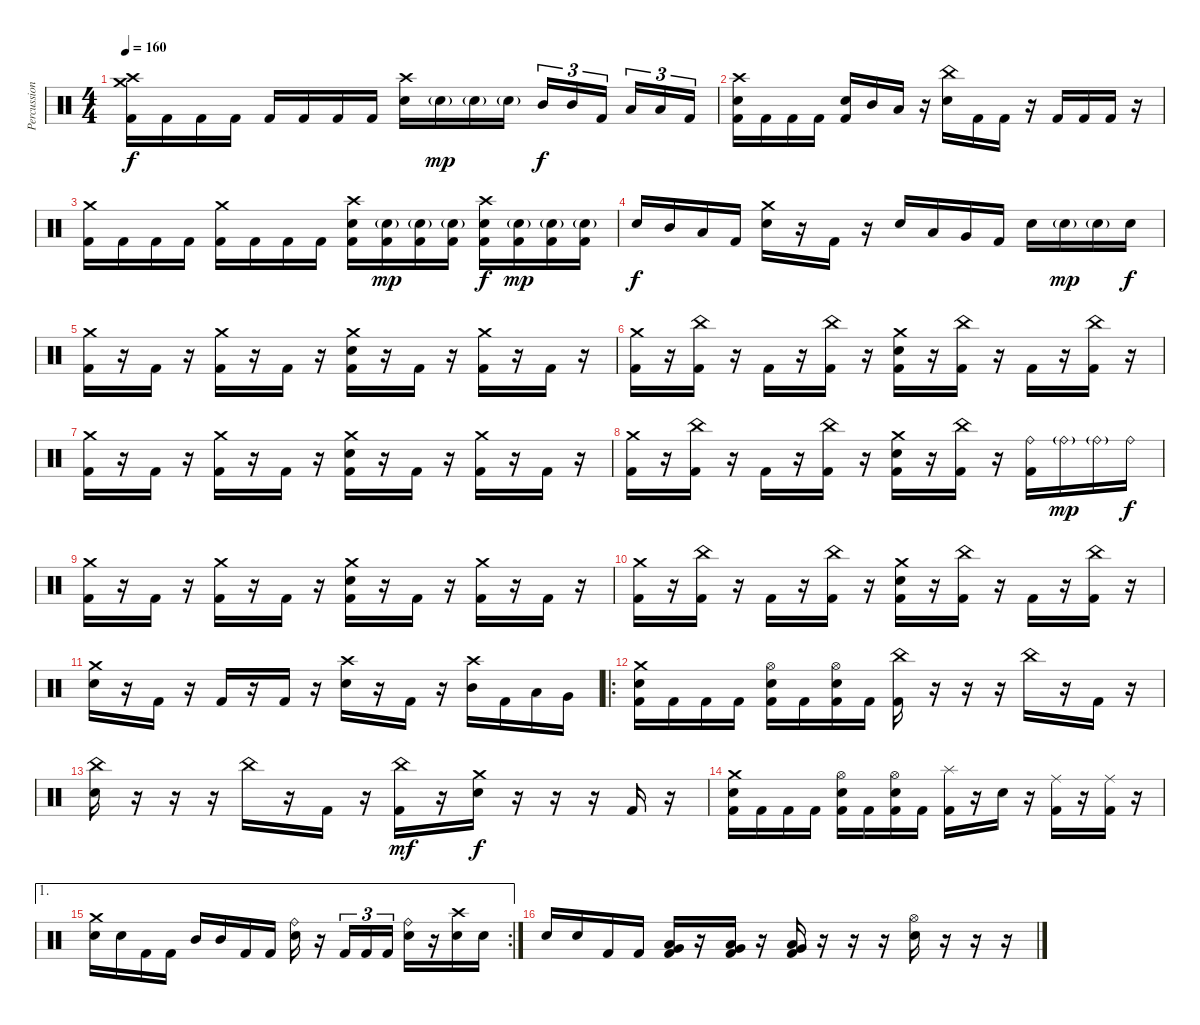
\track ("Percussion" "Percussion") {instrument percussion}
\staff {score}
\articulation defaults
\ts (4 4)
\tempo 160
\clef neutral
\ks c
("Crash high (hit)" "Crash medium (hit)" "Kick (hit) 2").16{dy f} "Kick (hit) 2".16 "Kick (hit) 2".16 "Kick (hit) 2".16 "Kick (hit) 2".16 "Kick (hit) 2".16 "Kick (hit) 2".16 "Kick (hit) 2".16 ("Crash high (hit)" "Electric Snare (hit)").16 "Electric Snare (hit)"{g}.16{dy mp} "Electric Snare (hit)"{g}.16 "Electric Snare (hit)"{g}.16 "Mid Tom (hit)".16{tu (3 2) dy f} "Mid Tom (hit)".16{tu (3 2)} "Kick (hit) 2".16{tu (3 2)} "Low Tom (hit)".16{tu (3 2)} "Low Tom (hit)".16{tu (3 2)} "Kick (hit) 2".16{tu (3 2)} |
("Crash high (hit)" "Electric Snare (hit)" "Kick (hit) 2").16 "Kick (hit) 2".16 "Kick (hit) 2".16 "Kick (hit) 2".16 ("Electric Snare (hit)" "Kick (hit) 2").16 "Mid Tom (hit)".16 "Low Tom (hit)".16 r.16 ("China (hit)" "Electric Snare (hit)").16 "Kick (hit) 2".16 "Kick (hit) 2".16 r.16 "Kick (hit) 2".16 "Kick (hit) 2".16 "Kick (hit) 2".16 r.16 |
("Crash medium (hit)" "Kick (hit) 2").16 "Kick (hit) 2".16 "Kick (hit) 2".16 "Kick (hit) 2".16 ("Crash medium (hit)" "Kick (hit) 2").16 "Kick (hit) 2".16 "Kick (hit) 2".16 "Kick (hit) 2".16 ("Crash high (hit)" "Electric Snare (hit)" "Kick (hit) 2").16 ("Electric Snare (hit)"{g} "Kick (hit) 2").16{dy mp} ("Electric Snare (hit)"{g} "Kick (hit) 2").16 ("Electric Snare (hit)"{g} "Kick (hit) 2").16 ("Crash high (hit)" "Electric Snare (hit)" "Kick (hit) 2").16{dy f} ("Electric Snare (hit)"{g} "Kick (hit) 2").16{dy mp} ("Electric Snare (hit)"{g} "Kick (hit) 2").16 ("Electric Snare (hit)"{g} "Kick (hit) 2").16 |
"Electric Snare (hit)".16{dy f} "Mid Tom (hit)".16 "Low Tom (hit)".16 "Kick (hit) 2".16 ("Crash medium (hit)" "Electric Snare (hit)").16 r.16 "Kick (hit) 2".16 r.16 "Electric Snare (hit)".16 "Low Tom (hit)".16 "Very Low Tom (hit)".16 "Kick (hit) 2".16 "Electric Snare (hit)".16 "Electric Snare (hit)"{g}.16{dy mp} "Electric Snare (hit)"{g}.16 "Electric Snare (hit)".16{dy f} |
("Crash medium (hit)" "Kick (hit) 2").16 r.16 "Kick (hit) 2".16 r.16 ("Crash medium (hit)" "Kick (hit) 2").16 r.16 "Kick (hit) 2".16 r.16 ("Crash medium (hit)" "Electric Snare (hit)" "Kick (hit) 2").16 r.16 "Kick (hit) 2".16 r.16 ("Crash medium (hit)" "Kick (hit) 2").16 r.16 "Kick (hit) 2".16 r.16 |
("Crash medium (hit)" "Kick (hit) 2").16 r.16 ("China (hit)" "Kick (hit) 2").16 r.16 "Kick (hit) 2".16 r.16 ("China (hit)" "Kick (hit) 2").16 r.16 ("Crash medium (hit)" "Electric Snare (hit)" "Kick (hit) 2").16 r.16 ("China (hit)" "Kick (hit) 2").16 r.16 "Kick (hit) 2".16 r.16 ("China (hit)" "Kick (hit) 2").16 r.16 |
("Crash medium (hit)" "Kick (hit) 2").16 r.16 "Kick (hit) 2".16 r.16 ("Crash medium (hit)" "Kick (hit) 2").16 r.16 "Kick (hit) 2".16 r.16 ("Crash medium (hit)" "Electric Snare (hit)" "Kick (hit) 2").16 r.16 "Kick (hit) 2".16 r.16 ("Crash medium (hit)" "Kick (hit) 2").16 r.16 "Kick (hit) 2".16 r.16 |
("Crash medium (hit)" "Kick (hit) 2").16 r.16 ("China (hit)" "Kick (hit) 2").16 r.16 "Kick (hit) 2".16 r.16 ("China (hit)" "Kick (hit) 2").16 r.16 ("Crash medium (hit)" "Electric Snare (hit)" "Kick (hit) 2").16 r.16 ("China (hit)" "Kick (hit) 2").16 r.16 ("Ride (bell)" "Kick (hit) 2").16 "Ride (bell)"{g}.16{dy mp} "Ride (bell)"{g}.16 "Ride (bell)".16{dy f} |
("Crash medium (hit)" "Kick (hit) 2").16 r.16 "Kick (hit) 2".16 r.16 ("Crash medium (hit)" "Kick (hit) 2").16 r.16 "Kick (hit) 2".16 r.16 ("Crash medium (hit)" "Electric Snare (hit)" "Kick (hit) 2").16 r.16 "Kick (hit) 2".16 r.16 ("Crash medium (hit)" "Kick (hit) 2").16 r.16 "Kick (hit) 2".16 r.16 |
("Crash medium (hit)" "Kick (hit) 2").16 r.16 ("China (hit)" "Kick (hit) 2").16 r.16 "Kick (hit) 2".16 r.16 ("China (hit)" "Kick (hit) 2").16 r.16 ("Crash medium (hit)" "Electric Snare (hit)" "Kick (hit) 2").16 r.16 ("China (hit)" "Kick (hit) 2").16 r.16 "Kick (hit) 2".16 r.16 ("China (hit)" "Kick (hit) 2").16 r.16 |
("Crash medium (hit)" "Electric Snare (hit)").16 r.16 "Kick (hit) 2".16 r.16 "Kick (hit) 2".16 r.16 "Kick (hit) 2".16 r.16 ("Crash high (hit)" "Electric Snare (hit)").16 r.16 "Kick (hit) 2".16 r.16 ("Crash high (hit)" "Mid Tom (hit)").16 "Kick (hit) 2".16 "Low Tom (hit)".16 "Very Low Tom (hit)".16 |
\ro
("Crash medium (hit)" "Electric Snare (hit)" "Kick (hit) 2").16 "Kick (hit) 2".16 "Kick (hit) 2".16 "Kick (hit) 2".16 ("Hi-Hat (open)" "Electric Snare (hit)" "Kick (hit) 2").16 "Kick (hit) 2".16 ("Hi-Hat (open)" "Electric Snare (hit)" "Kick (hit) 2").16 "Kick (hit) 2".16 ("China (hit)" "Kick (hit) 2").16 r.16 r.16 r.16 "China (hit)".16 r.16 "Kick (hit) 2".16 r.16 |
("China (hit)" "Electric Snare (hit)").16 r.16 r.16 r.16 "China (hit)".16 r.16 "Kick (hit) 2".16 r.16 ("China (hit)" "Kick (hit) 2").16{dy mf} r.16 ("Crash medium (hit)" "Electric Snare (hit)").16{dy f} r.16 r.16 r.16 "Kick (hit) 2".16 r.16 |
("Crash medium (hit)" "Electric Snare (hit)" "Kick (hit) 2").16 "Kick (hit) 2".16 "Kick (hit) 2".16 "Kick (hit) 2".16 ("Hi-Hat (open)" "Electric Snare (hit)" "Kick (hit) 2").16 "Kick (hit) 2".16 ("Hi-Hat (open)" "Electric Snare (hit)" "Kick (hit) 2").16 "Kick (hit) 2".16 ("Splash (hit)" "Kick (hit) 2").16 r.16 "Electric Snare (hit)".16 r.16 ("Ride (middle)" "Kick (hit) 2").16 r.16 ("Ride (middle)" "Kick (hit) 2").16 r.16 |
\ae 1
\rc 2
("Crash medium (hit)" "Electric Snare (hit)").16 "Electric Snare (hit)".16 "Kick (hit) 2".16 "Kick (hit) 2".16 "Mid Tom (hit)".16 "Mid Tom (hit)".16 "Kick (hit) 2".16 "Kick (hit) 2".16 ("Ride (bell)" "Electric Snare (hit)").16 r.16 "Kick (hit) 2".16{tu (3 2)} "Kick (hit) 2".16{tu (3 2)} "Kick (hit) 2".16{tu (3 2)} ("Ride (bell)" "Electric Snare (hit)").16 r.16 ("Crash high (hit)" "Electric Snare (hit)").16 "Electric Snare (hit)".16 |
"Electric Snare (hit)".16 "Electric Snare (hit)".16 "Kick (hit) 2".16 "Kick (hit) 2".16 ("Low Tom (hit)" "Very Low Tom (hit)" "Kick (hit) 2").16 r.16 ("Low Tom (hit)" "Very Low Tom (hit)" "Kick (hit) 2").16 r.16 ("Low Tom (hit)" "Very Low Tom (hit)" "Kick (hit) 2").16 r.16 r.16 r.16 ("Hi-Hat (open)" "Electric Snare (hit)").16 r.16 r.16 r.16
